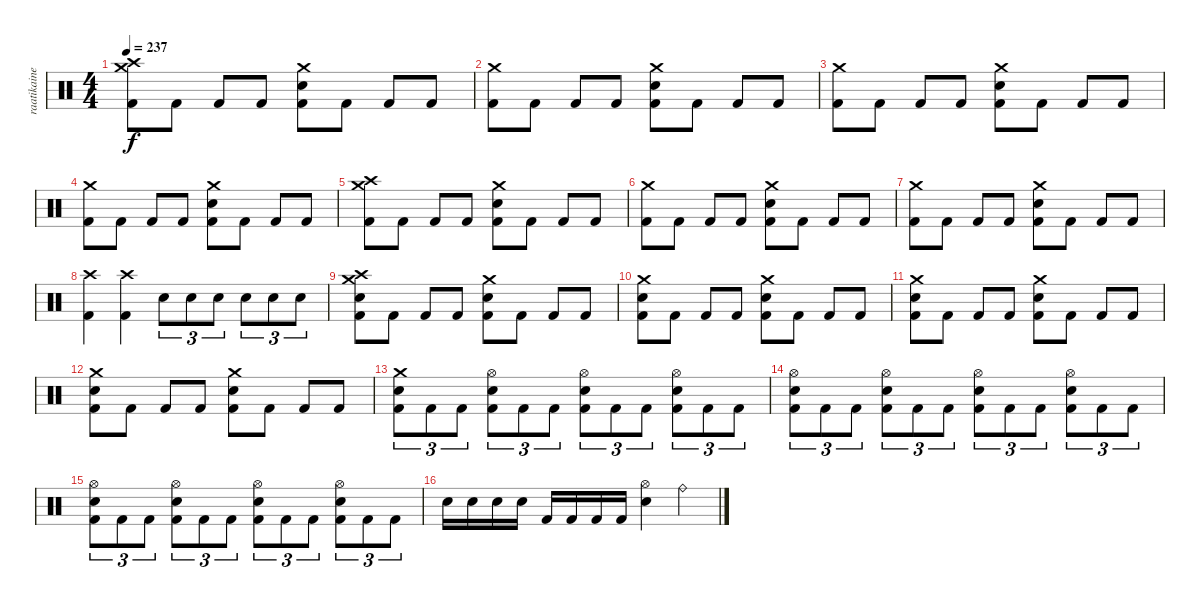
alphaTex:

\track ("raatikainen" "raatikaine") {instrument percussion}
\staff {score}
\articulation defaults
\ts (4 4)
\tempo 237
\clef neutral
\ks c
("Crash high (hit)" "Crash medium (hit)" "Kick (hit) 2").8{dy f} "Kick (hit) 2".8 "Kick (hit) 2".8 "Kick (hit) 2".8 ("Crash medium (hit)" "Snare (hit) 2" "Kick (hit) 2").8 "Kick (hit) 2".8 "Kick (hit) 2".8 "Kick (hit) 2".8 |
("Crash medium (hit)" "Kick (hit) 2").8 "Kick (hit) 2".8 "Kick (hit) 2".8 "Kick (hit) 2".8 ("Crash medium (hit)" "Snare (hit) 2" "Kick (hit) 2").8 "Kick (hit) 2".8 "Kick (hit) 2".8 "Kick (hit) 2".8 |
("Crash medium (hit)" "Kick (hit) 2").8 "Kick (hit) 2".8 "Kick (hit) 2".8 "Kick (hit) 2".8 ("Crash medium (hit)" "Snare (hit) 2" "Kick (hit) 2").8 "Kick (hit) 2".8 "Kick (hit) 2".8 "Kick (hit) 2".8 |
("Crash medium (hit)" "Kick (hit) 2").8 "Kick (hit) 2".8 "Kick (hit) 2".8 "Kick (hit) 2".8 ("Crash medium (hit)" "Snare (hit) 2" "Kick (hit) 2").8 "Kick (hit) 2".8 "Kick (hit) 2".8 "Kick (hit) 2".8 |
("Crash high (hit)" "Crash medium (hit)" "Kick (hit) 2").8 "Kick (hit) 2".8 "Kick (hit) 2".8 "Kick (hit) 2".8 ("Crash medium (hit)" "Snare (hit) 2" "Kick (hit) 2").8 "Kick (hit) 2".8 "Kick (hit) 2".8 "Kick (hit) 2".8 |
("Crash medium (hit)" "Kick (hit) 2").8 "Kick (hit) 2".8 "Kick (hit) 2".8 "Kick (hit) 2".8 ("Crash medium (hit)" "Snare (hit) 2" "Kick (hit) 2").8 "Kick (hit) 2".8 "Kick (hit) 2".8 "Kick (hit) 2".8 |
("Crash medium (hit)" "Kick (hit) 2").8 "Kick (hit) 2".8 "Kick (hit) 2".8 "Kick (hit) 2".8 ("Crash medium (hit)" "Snare (hit) 2" "Kick (hit) 2").8 "Kick (hit) 2".8 "Kick (hit) 2".8 "Kick (hit) 2".8 |
("Crash high (hit)" "Kick (hit) 2").4 ("Crash high (hit)" "Kick (hit) 2").4 "Snare (hit) 2".8{tu (3 2)} "Snare (hit) 2".8{tu (3 2)} "Snare (hit) 2".8{tu (3 2)} "Snare (hit) 2".8{tu (3 2)} "Snare (hit) 2".8{tu (3 2)} "Snare (hit) 2".8{tu (3 2)} |
("Crash high (hit)" "Crash medium (hit)" "Snare (hit) 2" "Kick (hit) 2").8 "Kick (hit) 2".8 "Kick (hit) 2".8 "Kick (hit) 2".8 ("Crash medium (hit)" "Snare (hit) 2" "Kick (hit) 2").8 "Kick (hit) 2".8 "Kick (hit) 2".8 "Kick (hit) 2".8 |
("Crash medium (hit)" "Snare (hit) 2" "Kick (hit) 2").8 "Kick (hit) 2".8 "Kick (hit) 2".8 "Kick (hit) 2".8 ("Crash medium (hit)" "Snare (hit) 2" "Kick (hit) 2").8 "Kick (hit) 2".8 "Kick (hit) 2".8 "Kick (hit) 2".8 |
("Crash medium (hit)" "Snare (hit) 2" "Kick (hit) 2").8 "Kick (hit) 2".8 "Kick (hit) 2".8 "Kick (hit) 2".8 ("Crash medium (hit)" "Snare (hit) 2" "Kick (hit) 2").8 "Kick (hit) 2".8 "Kick (hit) 2".8 "Kick (hit) 2".8 |
("Crash medium (hit)" "Snare (hit) 2" "Kick (hit) 2").8 "Kick (hit) 2".8 "Kick (hit) 2".8 "Kick (hit) 2".8 ("Crash medium (hit)" "Snare (hit) 2" "Kick (hit) 2").8 "Kick (hit) 2".8 "Kick (hit) 2".8 "Kick (hit) 2".8 |
("Crash medium (hit)" "Snare (hit) 2" "Kick (hit) 2").8{tu (3 2)} "Kick (hit) 2".8{tu (3 2)} "Kick (hit) 2".8{tu (3 2)} ("Hi-Hat (open)" "Snare (hit) 2" "Kick (hit) 2").8{tu (3 2)} "Kick (hit) 2".8{tu (3 2)} "Kick (hit) 2".8{tu (3 2)} ("Hi-Hat (open)" "Snare (hit) 2" "Kick (hit) 2").8{tu (3 2)} "Kick (hit) 2".8{tu (3 2)} "Kick (hit) 2".8{tu (3 2)} ("Hi-Hat (open)" "Snare (hit) 2" "Kick (hit) 2").8{tu (3 2)} "Kick (hit) 2".8{tu (3 2)} "Kick (hit) 2".8{tu (3 2)} |
("Hi-Hat (open)" "Snare (hit) 2" "Kick (hit) 2").8{tu (3 2)} "Kick (hit) 2".8{tu (3 2)} "Kick (hit) 2".8{tu (3 2)} ("Hi-Hat (open)" "Snare (hit) 2" "Kick (hit) 2").8{tu (3 2)} "Kick (hit) 2".8{tu (3 2)} "Kick (hit) 2".8{tu (3 2)} ("Hi-Hat (open)" "Snare (hit) 2" "Kick (hit) 2").8{tu (3 2)} "Kick (hit) 2".8{tu (3 2)} "Kick (hit) 2".8{tu (3 2)} ("Hi-Hat (open)" "Snare (hit) 2" "Kick (hit) 2").8{tu (3 2)} "Kick (hit) 2".8{tu (3 2)} "Kick (hit) 2".8{tu (3 2)} |
("Hi-Hat (open)" "Snare (hit) 2" "Kick (hit) 2").8{tu (3 2)} "Kick (hit) 2".8{tu (3 2)} "Kick (hit) 2".8{tu (3 2)} ("Hi-Hat (open)" "Snare (hit) 2" "Kick (hit) 2").8{tu (3 2)} "Kick (hit) 2".8{tu (3 2)} "Kick (hit) 2".8{tu (3 2)} ("Hi-Hat (open)" "Snare (hit) 2" "Kick (hit) 2").8{tu (3 2)} "Kick (hit) 2".8{tu (3 2)} "Kick (hit) 2".8{tu (3 2)} ("Hi-Hat (open)" "Snare (hit) 2" "Kick (hit) 2").8{tu (3 2)} "Kick (hit) 2".8{tu (3 2)} "Kick (hit) 2".8{tu (3 2)} |
"Snare (hit) 2".16 "Snare (hit) 2".16 "Snare (hit) 2".16 "Snare (hit) 2".16 "Kick (hit) 2".16 "Kick (hit) 2".16 "Kick (hit) 2".16 "Kick (hit) 2".16 ("Hi-Hat (open)" "Snare (hit) 2").4 "Ride (bell)".4
